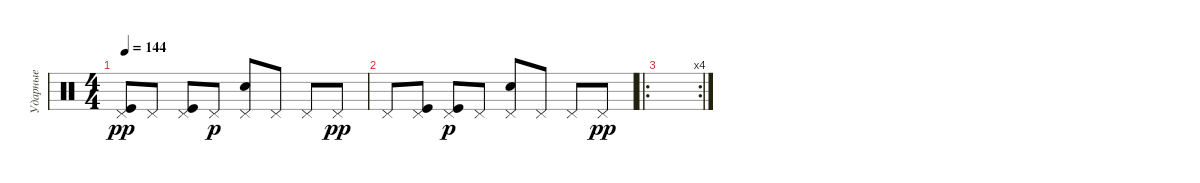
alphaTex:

\track ("Ударные" "Ударные") {instrument percussion}
\staff {score}
\articulation defaults
\ts (4 4)
\tempo 144
\clef neutral
\ks c
("Kick (hit)" "Pedal Hi-Hat (hit)").8{dy pp} "Pedal Hi-Hat (hit)".8 ("Kick (hit)" "Pedal Hi-Hat (hit)").8 "Pedal Hi-Hat (hit)".8{dy p} ("Snare (hit) 2" "Pedal Hi-Hat (hit)").8 "Pedal Hi-Hat (hit)".8 "Pedal Hi-Hat (hit)".8 "Pedal Hi-Hat (hit)".8{dy pp} |
"Pedal Hi-Hat (hit)".8 ("Kick (hit)" "Pedal Hi-Hat (hit)").8 ("Kick (hit)" "Pedal Hi-Hat (hit)").8{dy p} "Pedal Hi-Hat (hit)".8 ("Snare (hit) 2" "Pedal Hi-Hat (hit)").8 "Pedal Hi-Hat (hit)".8 "Pedal Hi-Hat (hit)".8 "Pedal Hi-Hat (hit)".8{dy pp} |
\ro
\rc 4
